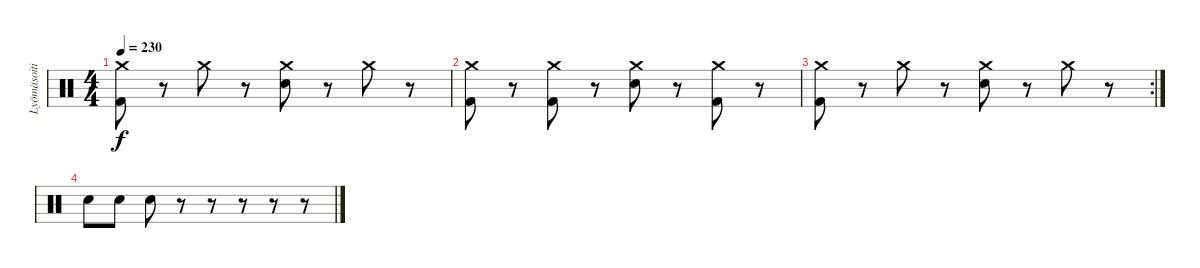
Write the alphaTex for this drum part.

\track ("Lyömäsoitin" "Lyömäsoiti") {instrument percussion}
\staff {score}
\articulation defaults
\ts (4 4)
\tempo 230
\clef neutral
\ks c
("Crash medium (hit)" "Kick (hit) 2").8{dy f} r.8 "Crash medium (hit)".8 r.8 ("Crash medium (hit)" "Electric Snare (hit)").8 r.8 "Crash medium (hit)".8 r.8 |
("Crash medium (hit)" "Kick (hit) 2").8 r.8 ("Crash medium (hit)" "Kick (hit) 2").8 r.8 ("Crash medium (hit)" "Electric Snare (hit)").8 r.8 ("Crash medium (hit)" "Kick (hit) 2").8 r.8 |
\rc 2
("Crash medium (hit)" "Kick (hit) 2").8 r.8 "Crash medium (hit)".8 r.8 ("Crash medium (hit)" "Electric Snare (hit)").8 r.8 "Crash medium (hit)".8 r.8 |
"Electric Snare (hit)".8 "Electric Snare (hit)".8 "Electric Snare (hit)".8 r.8 r.8 r.8 r.8 r.8
